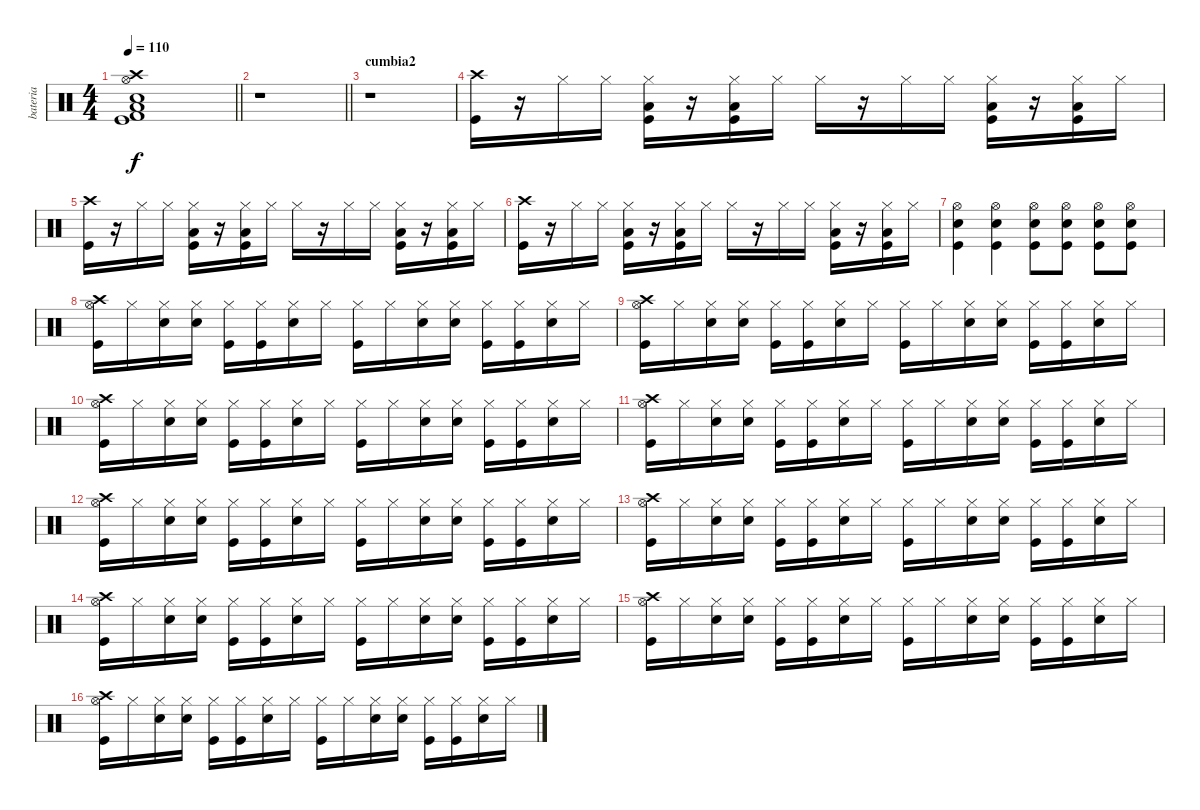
\track ("bateria" "bateria") {instrument percussion}
\staff {score}
\articulation defaults
\ts (4 4)
\tempo 110
\clef neutral
\barLineRight lightlight
\ks c
("Crash high (hit)" "Kick (hit) 2" "Hi-Hat (open)" "Snare (hit) 2" "Low Floor Tom (hit)" "Kick (hit)").1{dy f} |
\barLineRight lightlight
r.1 |
\section ("" "cumbia2")
r.1 |
("Crash high (hit)" "Kick (hit)").16 r.16 "Hi-Hat (closed)".16 "Hi-Hat (closed)".16 ("Hi-Hat (closed)" "Low Floor Tom (hit)" "Kick (hit)").16 r.16 ("Hi-Hat (closed)" "Low Floor Tom (hit)" "Kick (hit)").16 "Hi-Hat (closed)".16 "Hi-Hat (closed)".16 r.16 "Hi-Hat (closed)".16 "Hi-Hat (closed)".16 ("Hi-Hat (closed)" "Low Floor Tom (hit)" "Kick (hit)").16 r.16 ("Hi-Hat (closed)" "Low Floor Tom (hit)" "Kick (hit)").16 "Hi-Hat (closed)".16 |
("Crash high (hit)" "Kick (hit)").16 r.16 "Hi-Hat (closed)".16 "Hi-Hat (closed)".16 ("Hi-Hat (closed)" "Low Floor Tom (hit)" "Kick (hit)").16 r.16 ("Hi-Hat (closed)" "Low Floor Tom (hit)" "Kick (hit)").16 "Hi-Hat (closed)".16 "Hi-Hat (closed)".16 r.16 "Hi-Hat (closed)".16 "Hi-Hat (closed)".16 ("Hi-Hat (closed)" "Low Floor Tom (hit)" "Kick (hit)").16 r.16 ("Hi-Hat (closed)" "Low Floor Tom (hit)" "Kick (hit)").16 "Hi-Hat (closed)".16 |
("Crash high (hit)" "Kick (hit)").16 r.16 "Hi-Hat (closed)".16 "Hi-Hat (closed)".16 ("Hi-Hat (closed)" "Low Floor Tom (hit)" "Kick (hit)").16 r.16 ("Hi-Hat (closed)" "Low Floor Tom (hit)" "Kick (hit)").16 "Hi-Hat (closed)".16 "Hi-Hat (closed)".16 r.16 "Hi-Hat (closed)".16 "Hi-Hat (closed)".16 ("Hi-Hat (closed)" "Low Floor Tom (hit)" "Kick (hit)").16 r.16 ("Hi-Hat (closed)" "Low Floor Tom (hit)" "Kick (hit)").16 "Hi-Hat (closed)".16 |
("Hi-Hat (open)" "Snare (hit) 2" "Kick (hit)").4 ("Hi-Hat (open)" "Snare (hit) 2" "Kick (hit)").4 ("Hi-Hat (open)" "Snare (hit) 2" "Kick (hit)").8 ("Hi-Hat (open)" "Snare (hit) 2" "Kick (hit)").8 ("Hi-Hat (open)" "Snare (hit) 2" "Kick (hit)").8 ("Hi-Hat (open)" "Snare (hit) 2" "Kick (hit)").8 |
("Crash high (hit)" "Hi-Hat (open)" "Kick (hit)").16 "Hi-Hat (closed)".16 ("Hi-Hat (closed)" "Snare (hit) 2").16 ("Hi-Hat (closed)" "Snare (hit) 2").16 ("Hi-Hat (closed)" "Kick (hit)").16 ("Hi-Hat (closed)" "Kick (hit)").16 ("Hi-Hat (closed)" "Snare (hit) 2").16 "Hi-Hat (closed)".16 ("Hi-Hat (closed)" "Kick (hit)").16 "Hi-Hat (closed)".16 ("Hi-Hat (closed)" "Snare (hit) 2").16 ("Hi-Hat (closed)" "Snare (hit) 2").16 ("Hi-Hat (closed)" "Kick (hit)").16 ("Hi-Hat (closed)" "Kick (hit)").16 ("Hi-Hat (closed)" "Snare (hit) 2").16 "Hi-Hat (closed)".16 |
("Crash high (hit)" "Hi-Hat (open)" "Kick (hit)").16 "Hi-Hat (closed)".16 ("Hi-Hat (closed)" "Snare (hit) 2").16 ("Hi-Hat (closed)" "Snare (hit) 2").16 ("Hi-Hat (closed)" "Kick (hit)").16 ("Hi-Hat (closed)" "Kick (hit)").16 ("Hi-Hat (closed)" "Snare (hit) 2").16 "Hi-Hat (closed)".16 ("Hi-Hat (closed)" "Kick (hit)").16 "Hi-Hat (closed)".16 ("Hi-Hat (closed)" "Snare (hit) 2").16 ("Hi-Hat (closed)" "Snare (hit) 2").16 ("Hi-Hat (closed)" "Kick (hit)").16 ("Hi-Hat (closed)" "Kick (hit)").16 ("Hi-Hat (closed)" "Snare (hit) 2").16 "Hi-Hat (closed)".16 |
("Crash high (hit)" "Hi-Hat (open)" "Kick (hit)").16 "Hi-Hat (closed)".16 ("Hi-Hat (closed)" "Snare (hit) 2").16 ("Hi-Hat (closed)" "Snare (hit) 2").16 ("Hi-Hat (closed)" "Kick (hit)").16 ("Hi-Hat (closed)" "Kick (hit)").16 ("Hi-Hat (closed)" "Snare (hit) 2").16 "Hi-Hat (closed)".16 ("Hi-Hat (closed)" "Kick (hit)").16 "Hi-Hat (closed)".16 ("Hi-Hat (closed)" "Snare (hit) 2").16 ("Hi-Hat (closed)" "Snare (hit) 2").16 ("Hi-Hat (closed)" "Kick (hit)").16 ("Hi-Hat (closed)" "Kick (hit)").16 ("Hi-Hat (closed)" "Snare (hit) 2").16 "Hi-Hat (closed)".16 |
("Crash high (hit)" "Hi-Hat (open)" "Kick (hit)").16 "Hi-Hat (closed)".16 ("Hi-Hat (closed)" "Snare (hit) 2").16 ("Hi-Hat (closed)" "Snare (hit) 2").16 ("Hi-Hat (closed)" "Kick (hit)").16 ("Hi-Hat (closed)" "Kick (hit)").16 ("Hi-Hat (closed)" "Snare (hit) 2").16 "Hi-Hat (closed)".16 ("Hi-Hat (closed)" "Kick (hit)").16 "Hi-Hat (closed)".16 ("Hi-Hat (closed)" "Snare (hit) 2").16 ("Hi-Hat (closed)" "Snare (hit) 2").16 ("Hi-Hat (closed)" "Kick (hit)").16 ("Hi-Hat (closed)" "Kick (hit)").16 ("Hi-Hat (closed)" "Snare (hit) 2").16 "Hi-Hat (closed)".16 |
("Crash high (hit)" "Hi-Hat (open)" "Kick (hit)").16 "Hi-Hat (closed)".16 ("Hi-Hat (closed)" "Snare (hit) 2").16 ("Hi-Hat (closed)" "Snare (hit) 2").16 ("Hi-Hat (closed)" "Kick (hit)").16 ("Hi-Hat (closed)" "Kick (hit)").16 ("Hi-Hat (closed)" "Snare (hit) 2").16 "Hi-Hat (closed)".16 ("Hi-Hat (closed)" "Kick (hit)").16 "Hi-Hat (closed)".16 ("Hi-Hat (closed)" "Snare (hit) 2").16 ("Hi-Hat (closed)" "Snare (hit) 2").16 ("Hi-Hat (closed)" "Kick (hit)").16 ("Hi-Hat (closed)" "Kick (hit)").16 ("Hi-Hat (closed)" "Snare (hit) 2").16 "Hi-Hat (closed)".16 |
("Crash high (hit)" "Hi-Hat (open)" "Kick (hit)").16 "Hi-Hat (closed)".16 ("Hi-Hat (closed)" "Snare (hit) 2").16 ("Hi-Hat (closed)" "Snare (hit) 2").16 ("Hi-Hat (closed)" "Kick (hit)").16 ("Hi-Hat (closed)" "Kick (hit)").16 ("Hi-Hat (closed)" "Snare (hit) 2").16 "Hi-Hat (closed)".16 ("Hi-Hat (closed)" "Kick (hit)").16 "Hi-Hat (closed)".16 ("Hi-Hat (closed)" "Snare (hit) 2").16 ("Hi-Hat (closed)" "Snare (hit) 2").16 ("Hi-Hat (closed)" "Kick (hit)").16 ("Hi-Hat (closed)" "Kick (hit)").16 ("Hi-Hat (closed)" "Snare (hit) 2").16 "Hi-Hat (closed)".16 |
("Crash high (hit)" "Hi-Hat (open)" "Kick (hit)").16 "Hi-Hat (closed)".16 ("Hi-Hat (closed)" "Snare (hit) 2").16 ("Hi-Hat (closed)" "Snare (hit) 2").16 ("Hi-Hat (closed)" "Kick (hit)").16 ("Hi-Hat (closed)" "Kick (hit)").16 ("Hi-Hat (closed)" "Snare (hit) 2").16 "Hi-Hat (closed)".16 ("Hi-Hat (closed)" "Kick (hit)").16 "Hi-Hat (closed)".16 ("Hi-Hat (closed)" "Snare (hit) 2").16 ("Hi-Hat (closed)" "Snare (hit) 2").16 ("Hi-Hat (closed)" "Kick (hit)").16 ("Hi-Hat (closed)" "Kick (hit)").16 ("Hi-Hat (closed)" "Snare (hit) 2").16 "Hi-Hat (closed)".16 |
("Crash high (hit)" "Hi-Hat (open)" "Kick (hit)").16 "Hi-Hat (closed)".16 ("Hi-Hat (closed)" "Snare (hit) 2").16 ("Hi-Hat (closed)" "Snare (hit) 2").16 ("Hi-Hat (closed)" "Kick (hit)").16 ("Hi-Hat (closed)" "Kick (hit)").16 ("Hi-Hat (closed)" "Snare (hit) 2").16 "Hi-Hat (closed)".16 ("Hi-Hat (closed)" "Kick (hit)").16 "Hi-Hat (closed)".16 ("Hi-Hat (closed)" "Snare (hit) 2").16 ("Hi-Hat (closed)" "Snare (hit) 2").16 ("Hi-Hat (closed)" "Kick (hit)").16 ("Hi-Hat (closed)" "Kick (hit)").16 ("Hi-Hat (closed)" "Snare (hit) 2").16 "Hi-Hat (closed)".16 |
("Crash high (hit)" "Hi-Hat (open)" "Kick (hit)").16 "Hi-Hat (closed)".16 ("Hi-Hat (closed)" "Snare (hit) 2").16 ("Hi-Hat (closed)" "Snare (hit) 2").16 ("Hi-Hat (closed)" "Kick (hit)").16 ("Hi-Hat (closed)" "Kick (hit)").16 ("Hi-Hat (closed)" "Snare (hit) 2").16 "Hi-Hat (closed)".16 ("Hi-Hat (closed)" "Kick (hit)").16 "Hi-Hat (closed)".16 ("Hi-Hat (closed)" "Snare (hit) 2").16 ("Hi-Hat (closed)" "Snare (hit) 2").16 ("Hi-Hat (closed)" "Kick (hit)").16 ("Hi-Hat (closed)" "Kick (hit)").16 ("Hi-Hat (closed)" "Snare (hit) 2").16 "Hi-Hat (closed)".16
